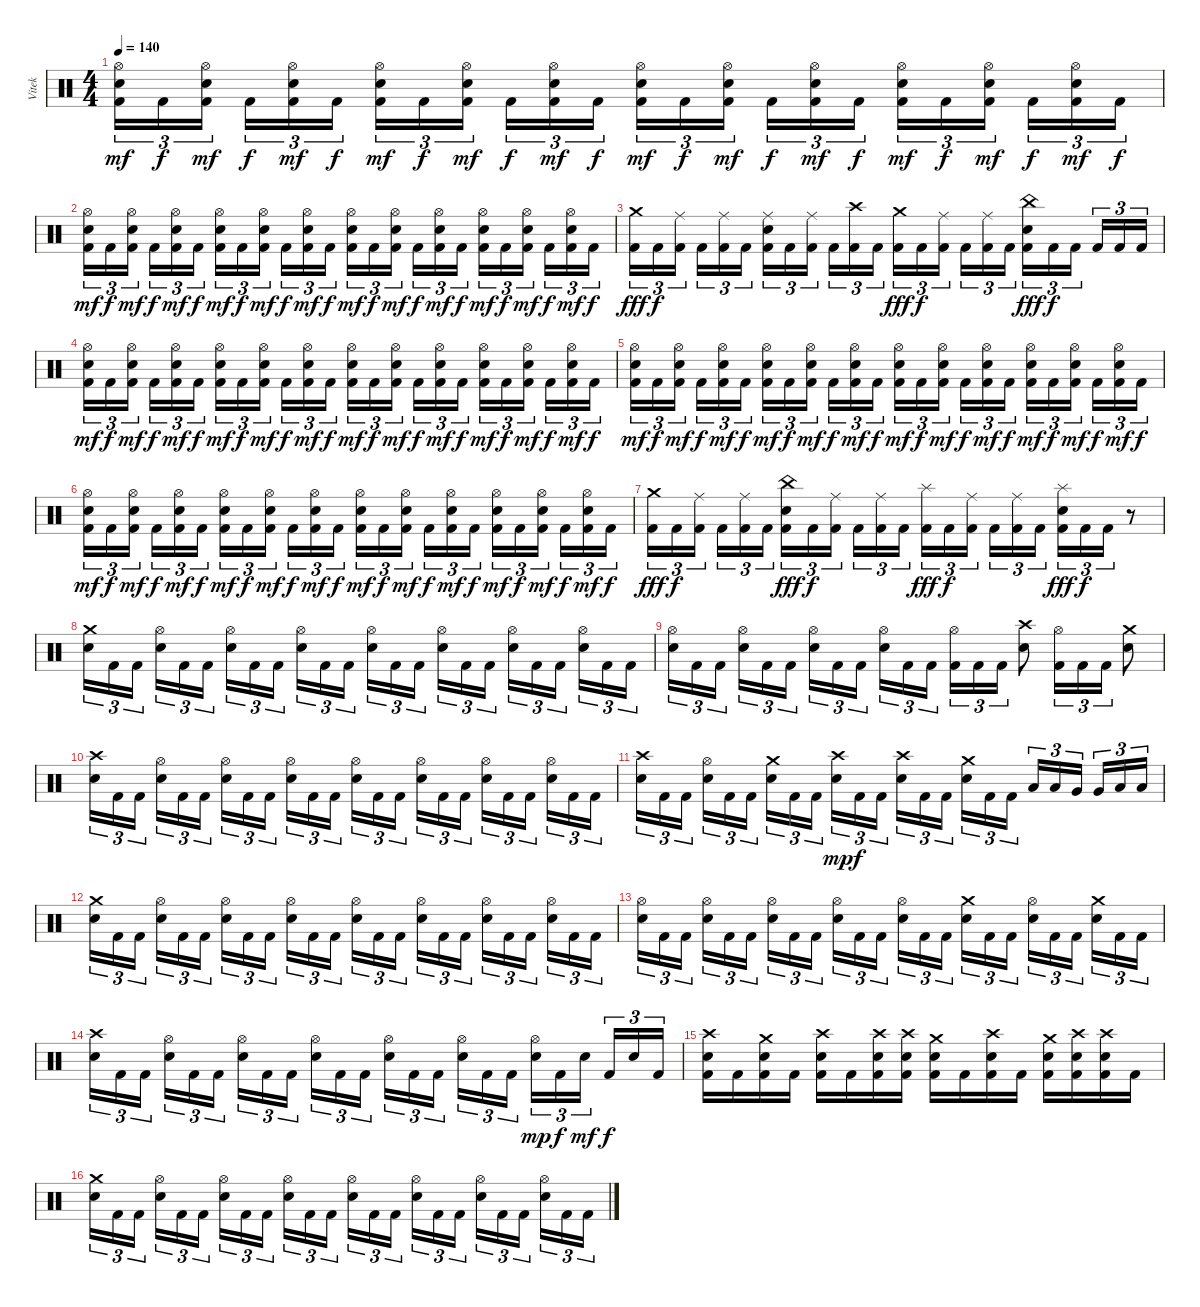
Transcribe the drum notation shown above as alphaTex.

\track ("Vitek" "Vitek") {instrument percussion}
\staff {score}
\articulation defaults
\ts (4 4)
\tempo 140
\clef neutral
\ks c
("Hi-Hat (open)" "Electric Snare (hit)" "Kick (hit) 2").16{tu (3 2) dy mf} "Kick (hit) 2".16{tu (3 2) dy f} ("Hi-Hat (open)" "Electric Snare (hit)" "Kick (hit) 2").16{tu (3 2) dy mf} "Kick (hit) 2".16{tu (3 2) dy f} ("Hi-Hat (open)" "Electric Snare (hit)" "Kick (hit) 2").16{tu (3 2) dy mf} "Kick (hit) 2".16{tu (3 2) dy f} ("Hi-Hat (open)" "Electric Snare (hit)" "Kick (hit) 2").16{tu (3 2) dy mf} "Kick (hit) 2".16{tu (3 2) dy f} ("Hi-Hat (open)" "Electric Snare (hit)" "Kick (hit) 2").16{tu (3 2) dy mf} "Kick (hit) 2".16{tu (3 2) dy f} ("Hi-Hat (open)" "Electric Snare (hit)" "Kick (hit) 2").16{tu (3 2) dy mf} "Kick (hit) 2".16{tu (3 2) dy f} ("Hi-Hat (open)" "Electric Snare (hit)" "Kick (hit) 2").16{tu (3 2) dy mf} "Kick (hit) 2".16{tu (3 2) dy f} ("Hi-Hat (open)" "Electric Snare (hit)" "Kick (hit) 2").16{tu (3 2) dy mf} "Kick (hit) 2".16{tu (3 2) dy f} ("Hi-Hat (open)" "Electric Snare (hit)" "Kick (hit) 2").16{tu (3 2) dy mf} "Kick (hit) 2".16{tu (3 2) dy f} ("Hi-Hat (open)" "Electric Snare (hit)" "Kick (hit) 2").16{tu (3 2) dy mf} "Kick (hit) 2".16{tu (3 2) dy f} ("Hi-Hat (open)" "Electric Snare (hit)" "Kick (hit) 2").16{tu (3 2) dy mf} "Kick (hit) 2".16{tu (3 2) dy f} ("Hi-Hat (open)" "Electric Snare (hit)" "Kick (hit) 2").16{tu (3 2) dy mf} "Kick (hit) 2".16{tu (3 2) dy f} |
("Hi-Hat (open)" "Electric Snare (hit)" "Kick (hit) 2").16{tu (3 2) dy mf} "Kick (hit) 2".16{tu (3 2) dy f} ("Hi-Hat (open)" "Electric Snare (hit)" "Kick (hit) 2").16{tu (3 2) dy mf} "Kick (hit) 2".16{tu (3 2) dy f} ("Hi-Hat (open)" "Electric Snare (hit)" "Kick (hit) 2").16{tu (3 2) dy mf} "Kick (hit) 2".16{tu (3 2) dy f} ("Hi-Hat (open)" "Electric Snare (hit)" "Kick (hit) 2").16{tu (3 2) dy mf} "Kick (hit) 2".16{tu (3 2) dy f} ("Hi-Hat (open)" "Electric Snare (hit)" "Kick (hit) 2").16{tu (3 2) dy mf} "Kick (hit) 2".16{tu (3 2) dy f} ("Hi-Hat (open)" "Electric Snare (hit)" "Kick (hit) 2").16{tu (3 2) dy mf} "Kick (hit) 2".16{tu (3 2) dy f} ("Hi-Hat (open)" "Electric Snare (hit)" "Kick (hit) 2").16{tu (3 2) dy mf} "Kick (hit) 2".16{tu (3 2) dy f} ("Hi-Hat (open)" "Electric Snare (hit)" "Kick (hit) 2").16{tu (3 2) dy mf} "Kick (hit) 2".16{tu (3 2) dy f} ("Hi-Hat (open)" "Electric Snare (hit)" "Kick (hit) 2").16{tu (3 2) dy mf} "Kick (hit) 2".16{tu (3 2) dy f} ("Hi-Hat (open)" "Electric Snare (hit)" "Kick (hit) 2").16{tu (3 2) dy mf} "Kick (hit) 2".16{tu (3 2) dy f} ("Hi-Hat (open)" "Electric Snare (hit)" "Kick (hit) 2").16{tu (3 2) dy mf} "Kick (hit) 2".16{tu (3 2) dy f} ("Hi-Hat (open)" "Electric Snare (hit)" "Kick (hit) 2").16{tu (3 2) dy mf} "Kick (hit) 2".16{tu (3 2) dy f} |
("Crash medium (hit)" "Kick (hit) 2").16{tu (3 2) dy fff} "Kick (hit) 2".16{tu (3 2) dy f} ("Ride (middle)" "Kick (hit) 2").16{tu (3 2)} "Kick (hit) 2".16{tu (3 2)} ("Ride (middle)" "Kick (hit) 2").16{tu (3 2)} "Kick (hit) 2".16{tu (3 2)} ("Ride (middle)" "Electric Snare (hit)" "Kick (hit) 2").16{tu (3 2)} "Kick (hit) 2".16{tu (3 2)} ("Ride (middle)" "Kick (hit) 2").16{tu (3 2)} "Kick (hit) 2".16{tu (3 2)} ("Crash high (hit)" "Kick (hit) 2").16{tu (3 2)} "Kick (hit) 2".16{tu (3 2)} ("Crash medium (hit)" "Kick (hit) 2").16{tu (3 2) dy fff} "Kick (hit) 2".16{tu (3 2) dy f} ("Ride (middle)" "Kick (hit) 2").16{tu (3 2)} "Kick (hit) 2".16{tu (3 2)} ("Ride (middle)" "Kick (hit) 2").16{tu (3 2)} "Kick (hit) 2".16{tu (3 2)} ("China (hit)" "Electric Snare (hit)" "Kick (hit) 2").16{tu (3 2) dy fff} "Kick (hit) 2".16{tu (3 2) dy f} "Kick (hit) 2".16{tu (3 2)} "Kick (hit) 2".16{tu (3 2)} "Kick (hit) 2".16{tu (3 2)} "Kick (hit) 2".16{tu (3 2)} |
("Hi-Hat (open)" "Electric Snare (hit)" "Kick (hit) 2").16{tu (3 2) dy mf} "Kick (hit) 2".16{tu (3 2) dy f} ("Hi-Hat (open)" "Electric Snare (hit)" "Kick (hit) 2").16{tu (3 2) dy mf} "Kick (hit) 2".16{tu (3 2) dy f} ("Hi-Hat (open)" "Electric Snare (hit)" "Kick (hit) 2").16{tu (3 2) dy mf} "Kick (hit) 2".16{tu (3 2) dy f} ("Hi-Hat (open)" "Electric Snare (hit)" "Kick (hit) 2").16{tu (3 2) dy mf} "Kick (hit) 2".16{tu (3 2) dy f} ("Hi-Hat (open)" "Electric Snare (hit)" "Kick (hit) 2").16{tu (3 2) dy mf} "Kick (hit) 2".16{tu (3 2) dy f} ("Hi-Hat (open)" "Electric Snare (hit)" "Kick (hit) 2").16{tu (3 2) dy mf} "Kick (hit) 2".16{tu (3 2) dy f} ("Hi-Hat (open)" "Electric Snare (hit)" "Kick (hit) 2").16{tu (3 2) dy mf} "Kick (hit) 2".16{tu (3 2) dy f} ("Hi-Hat (open)" "Electric Snare (hit)" "Kick (hit) 2").16{tu (3 2) dy mf} "Kick (hit) 2".16{tu (3 2) dy f} ("Hi-Hat (open)" "Electric Snare (hit)" "Kick (hit) 2").16{tu (3 2) dy mf} "Kick (hit) 2".16{tu (3 2) dy f} ("Hi-Hat (open)" "Electric Snare (hit)" "Kick (hit) 2").16{tu (3 2) dy mf} "Kick (hit) 2".16{tu (3 2) dy f} ("Hi-Hat (open)" "Electric Snare (hit)" "Kick (hit) 2").16{tu (3 2) dy mf} "Kick (hit) 2".16{tu (3 2) dy f} ("Hi-Hat (open)" "Electric Snare (hit)" "Kick (hit) 2").16{tu (3 2) dy mf} "Kick (hit) 2".16{tu (3 2) dy f} |
("Hi-Hat (open)" "Electric Snare (hit)" "Kick (hit) 2").16{tu (3 2) dy mf} "Kick (hit) 2".16{tu (3 2) dy f} ("Hi-Hat (open)" "Electric Snare (hit)" "Kick (hit) 2").16{tu (3 2) dy mf} "Kick (hit) 2".16{tu (3 2) dy f} ("Hi-Hat (open)" "Electric Snare (hit)" "Kick (hit) 2").16{tu (3 2) dy mf} "Kick (hit) 2".16{tu (3 2) dy f} ("Hi-Hat (open)" "Electric Snare (hit)" "Kick (hit) 2").16{tu (3 2) dy mf} "Kick (hit) 2".16{tu (3 2) dy f} ("Hi-Hat (open)" "Electric Snare (hit)" "Kick (hit) 2").16{tu (3 2) dy mf} "Kick (hit) 2".16{tu (3 2) dy f} ("Hi-Hat (open)" "Electric Snare (hit)" "Kick (hit) 2").16{tu (3 2) dy mf} "Kick (hit) 2".16{tu (3 2) dy f} ("Hi-Hat (open)" "Electric Snare (hit)" "Kick (hit) 2").16{tu (3 2) dy mf} "Kick (hit) 2".16{tu (3 2) dy f} ("Hi-Hat (open)" "Electric Snare (hit)" "Kick (hit) 2").16{tu (3 2) dy mf} "Kick (hit) 2".16{tu (3 2) dy f} ("Hi-Hat (open)" "Electric Snare (hit)" "Kick (hit) 2").16{tu (3 2) dy mf} "Kick (hit) 2".16{tu (3 2) dy f} ("Hi-Hat (open)" "Electric Snare (hit)" "Kick (hit) 2").16{tu (3 2) dy mf} "Kick (hit) 2".16{tu (3 2) dy f} ("Hi-Hat (open)" "Electric Snare (hit)" "Kick (hit) 2").16{tu (3 2) dy mf} "Kick (hit) 2".16{tu (3 2) dy f} ("Hi-Hat (open)" "Electric Snare (hit)" "Kick (hit) 2").16{tu (3 2) dy mf} "Kick (hit) 2".16{tu (3 2) dy f} |
("Hi-Hat (open)" "Electric Snare (hit)" "Kick (hit) 2").16{tu (3 2) dy mf} "Kick (hit) 2".16{tu (3 2) dy f} ("Hi-Hat (open)" "Electric Snare (hit)" "Kick (hit) 2").16{tu (3 2) dy mf} "Kick (hit) 2".16{tu (3 2) dy f} ("Hi-Hat (open)" "Electric Snare (hit)" "Kick (hit) 2").16{tu (3 2) dy mf} "Kick (hit) 2".16{tu (3 2) dy f} ("Hi-Hat (open)" "Electric Snare (hit)" "Kick (hit) 2").16{tu (3 2) dy mf} "Kick (hit) 2".16{tu (3 2) dy f} ("Hi-Hat (open)" "Electric Snare (hit)" "Kick (hit) 2").16{tu (3 2) dy mf} "Kick (hit) 2".16{tu (3 2) dy f} ("Hi-Hat (open)" "Electric Snare (hit)" "Kick (hit) 2").16{tu (3 2) dy mf} "Kick (hit) 2".16{tu (3 2) dy f} ("Hi-Hat (open)" "Electric Snare (hit)" "Kick (hit) 2").16{tu (3 2) dy mf} "Kick (hit) 2".16{tu (3 2) dy f} ("Hi-Hat (open)" "Electric Snare (hit)" "Kick (hit) 2").16{tu (3 2) dy mf} "Kick (hit) 2".16{tu (3 2) dy f} ("Hi-Hat (open)" "Electric Snare (hit)" "Kick (hit) 2").16{tu (3 2) dy mf} "Kick (hit) 2".16{tu (3 2) dy f} ("Hi-Hat (open)" "Electric Snare (hit)" "Kick (hit) 2").16{tu (3 2) dy mf} "Kick (hit) 2".16{tu (3 2) dy f} ("Hi-Hat (open)" "Electric Snare (hit)" "Kick (hit) 2").16{tu (3 2) dy mf} "Kick (hit) 2".16{tu (3 2) dy f} ("Hi-Hat (open)" "Electric Snare (hit)" "Kick (hit) 2").16{tu (3 2) dy mf} "Kick (hit) 2".16{tu (3 2) dy f} |
("Crash medium (hit)" "Kick (hit) 2").16{tu (3 2) dy fff} "Kick (hit) 2".16{tu (3 2) dy f} ("Ride (middle)" "Kick (hit) 2").16{tu (3 2)} "Kick (hit) 2".16{tu (3 2)} ("Ride (middle)" "Kick (hit) 2").16{tu (3 2)} "Kick (hit) 2".16{tu (3 2)} ("China (hit)" "Electric Snare (hit)" "Kick (hit) 2").16{tu (3 2) dy fff} "Kick (hit) 2".16{tu (3 2) dy f} ("Ride (middle)" "Kick (hit) 2").16{tu (3 2)} "Kick (hit) 2".16{tu (3 2)} ("Ride (middle)" "Kick (hit) 2").16{tu (3 2)} "Kick (hit) 2".16{tu (3 2)} ("Splash (hit)" "Kick (hit) 2").16{tu (3 2) dy fff} "Kick (hit) 2".16{tu (3 2) dy f} ("Ride (middle)" "Kick (hit) 2").16{tu (3 2)} "Kick (hit) 2".16{tu (3 2)} ("Ride (middle)" "Kick (hit) 2").16{tu (3 2)} "Kick (hit) 2".16{tu (3 2)} ("Splash (hit)" "Electric Snare (hit)" "Kick (hit) 2").16{tu (3 2) dy fff} "Kick (hit) 2".16{tu (3 2) dy f} "Kick (hit) 2".16{tu (3 2)} r.8{volume 0} |
("Crash medium (hit)" "Electric Snare (hit)").16{tu (3 2) volume 16} "Kick (hit) 2".16{tu (3 2)} "Kick (hit) 2".16{tu (3 2)} ("Hi-Hat (open)" "Electric Snare (hit)").16{tu (3 2)} "Kick (hit) 2".16{tu (3 2)} "Kick (hit) 2".16{tu (3 2)} ("Hi-Hat (open)" "Electric Snare (hit)").16{tu (3 2)} "Kick (hit) 2".16{tu (3 2)} "Kick (hit) 2".16{tu (3 2)} ("Hi-Hat (open)" "Electric Snare (hit)").16{tu (3 2)} "Kick (hit) 2".16{tu (3 2)} "Kick (hit) 2".16{tu (3 2)} ("Hi-Hat (open)" "Electric Snare (hit)").16{tu (3 2)} "Kick (hit) 2".16{tu (3 2)} "Kick (hit) 2".16{tu (3 2)} ("Hi-Hat (open)" "Electric Snare (hit)").16{tu (3 2)} "Kick (hit) 2".16{tu (3 2)} "Kick (hit) 2".16{tu (3 2)} ("Hi-Hat (open)" "Electric Snare (hit)").16{tu (3 2)} "Kick (hit) 2".16{tu (3 2)} "Kick (hit) 2".16{tu (3 2)} ("Hi-Hat (open)" "Electric Snare (hit)").16{tu (3 2)} "Kick (hit) 2".16{tu (3 2)} "Kick (hit) 2".16{tu (3 2)} |
("Hi-Hat (open)" "Electric Snare (hit)").16{tu (3 2) volume 16} "Kick (hit) 2".16{tu (3 2)} "Kick (hit) 2".16{tu (3 2)} ("Hi-Hat (open)" "Electric Snare (hit)").16{tu (3 2)} "Kick (hit) 2".16{tu (3 2)} "Kick (hit) 2".16{tu (3 2)} ("Hi-Hat (open)" "Electric Snare (hit)").16{tu (3 2)} "Kick (hit) 2".16{tu (3 2)} "Kick (hit) 2".16{tu (3 2)} ("Hi-Hat (open)" "Electric Snare (hit)").16{tu (3 2)} "Kick (hit) 2".16{tu (3 2)} "Kick (hit) 2".16{tu (3 2)} ("Hi-Hat (open)" "Kick (hit) 2").16{tu (3 2)} "Kick (hit) 2".16{tu (3 2)} "Kick (hit) 2".16{tu (3 2)} ("Crash high (hit)" "Electric Snare (hit)").8 ("Hi-Hat (open)" "Kick (hit) 2").16{tu (3 2)} "Kick (hit) 2".16{tu (3 2)} "Kick (hit) 2".16{tu (3 2)} ("Crash medium (hit)" "Electric Snare (hit)").8 |
("Crash high (hit)" "Electric Snare (hit)").16{tu (3 2) volume 16} "Kick (hit) 2".16{tu (3 2)} "Kick (hit) 2".16{tu (3 2)} ("Hi-Hat (open)" "Electric Snare (hit)").16{tu (3 2)} "Kick (hit) 2".16{tu (3 2)} "Kick (hit) 2".16{tu (3 2)} ("Hi-Hat (open)" "Electric Snare (hit)").16{tu (3 2)} "Kick (hit) 2".16{tu (3 2)} "Kick (hit) 2".16{tu (3 2)} ("Hi-Hat (open)" "Electric Snare (hit)").16{tu (3 2)} "Kick (hit) 2".16{tu (3 2)} "Kick (hit) 2".16{tu (3 2)} ("Hi-Hat (open)" "Electric Snare (hit)").16{tu (3 2)} "Kick (hit) 2".16{tu (3 2)} "Kick (hit) 2".16{tu (3 2)} ("Hi-Hat (open)" "Electric Snare (hit)").16{tu (3 2)} "Kick (hit) 2".16{tu (3 2)} "Kick (hit) 2".16{tu (3 2)} ("Hi-Hat (open)" "Electric Snare (hit)").16{tu (3 2)} "Kick (hit) 2".16{tu (3 2)} "Kick (hit) 2".16{tu (3 2)} ("Hi-Hat (open)" "Electric Snare (hit)").16{tu (3 2)} "Kick (hit) 2".16{tu (3 2)} "Kick (hit) 2".16{tu (3 2)} |
("Crash high (hit)" "Electric Snare (hit)").16{tu (3 2) volume 16} "Kick (hit) 2".16{tu (3 2)} "Kick (hit) 2".16{tu (3 2)} ("Hi-Hat (open)" "Electric Snare (hit)").16{tu (3 2)} "Kick (hit) 2".16{tu (3 2)} "Kick (hit) 2".16{tu (3 2)} ("Crash medium (hit)" "Electric Snare (hit)").16{tu (3 2)} "Kick (hit) 2".16{tu (3 2)} "Kick (hit) 2".16{tu (3 2)} ("Crash high (hit)" "Electric Snare (hit)").16{tu (3 2) dy mp} "Kick (hit) 2".16{tu (3 2) dy f} "Kick (hit) 2".16{tu (3 2)} ("Crash high (hit)" "Electric Snare (hit)").16{tu (3 2)} "Kick (hit) 2".16{tu (3 2)} "Kick (hit) 2".16{tu (3 2)} ("Crash medium (hit)" "Electric Snare (hit)").16{tu (3 2)} "Kick (hit) 2".16{tu (3 2)} "Kick (hit) 2".16{tu (3 2)} "Low Tom (hit)".16{tu (3 2)} "Low Tom (hit)".16{tu (3 2)} "Very Low Tom (hit)".16{tu (3 2)} "Very Low Tom (hit)".16{tu (3 2)} "Low Floor Tom (hit)".16{tu (3 2)} "Low Floor Tom (hit)".16{tu (3 2)} |
("Crash medium (hit)" "Electric Snare (hit)").16{tu (3 2) volume 16} "Kick (hit) 2".16{tu (3 2)} "Kick (hit) 2".16{tu (3 2)} ("Hi-Hat (open)" "Electric Snare (hit)").16{tu (3 2)} "Kick (hit) 2".16{tu (3 2)} "Kick (hit) 2".16{tu (3 2)} ("Hi-Hat (open)" "Electric Snare (hit)").16{tu (3 2)} "Kick (hit) 2".16{tu (3 2)} "Kick (hit) 2".16{tu (3 2)} ("Hi-Hat (open)" "Electric Snare (hit)").16{tu (3 2)} "Kick (hit) 2".16{tu (3 2)} "Kick (hit) 2".16{tu (3 2)} ("Hi-Hat (open)" "Electric Snare (hit)").16{tu (3 2)} "Kick (hit) 2".16{tu (3 2)} "Kick (hit) 2".16{tu (3 2)} ("Hi-Hat (open)" "Electric Snare (hit)").16{tu (3 2)} "Kick (hit) 2".16{tu (3 2)} "Kick (hit) 2".16{tu (3 2)} ("Hi-Hat (open)" "Electric Snare (hit)").16{tu (3 2)} "Kick (hit) 2".16{tu (3 2)} "Kick (hit) 2".16{tu (3 2)} ("Hi-Hat (open)" "Electric Snare (hit)").16{tu (3 2)} "Kick (hit) 2".16{tu (3 2)} "Kick (hit) 2".16{tu (3 2)} |
("Hi-Hat (open)" "Electric Snare (hit)").16{tu (3 2) volume 16} "Kick (hit) 2".16{tu (3 2)} "Kick (hit) 2".16{tu (3 2)} ("Hi-Hat (open)" "Electric Snare (hit)").16{tu (3 2)} "Kick (hit) 2".16{tu (3 2)} "Kick (hit) 2".16{tu (3 2)} ("Hi-Hat (open)" "Electric Snare (hit)").16{tu (3 2)} "Kick (hit) 2".16{tu (3 2)} "Kick (hit) 2".16{tu (3 2)} ("Hi-Hat (open)" "Electric Snare (hit)").16{tu (3 2)} "Kick (hit) 2".16{tu (3 2)} "Kick (hit) 2".16{tu (3 2)} ("Hi-Hat (open)" "Electric Snare (hit)").16{tu (3 2)} "Kick (hit) 2".16{tu (3 2)} "Kick (hit) 2".16{tu (3 2)} ("Crash medium (hit)" "Electric Snare (hit)").16{tu (3 2)} "Kick (hit) 2".16{tu (3 2)} "Kick (hit) 2".16{tu (3 2)} ("Hi-Hat (open)" "Electric Snare (hit)").16{tu (3 2)} "Kick (hit) 2".16{tu (3 2)} "Kick (hit) 2".16{tu (3 2)} ("Crash medium (hit)" "Electric Snare (hit)").16{tu (3 2)} "Kick (hit) 2".16{tu (3 2)} "Kick (hit) 2".16{tu (3 2)} |
("Crash high (hit)" "Electric Snare (hit)").16{tu (3 2) volume 16} "Kick (hit) 2".16{tu (3 2)} "Kick (hit) 2".16{tu (3 2)} ("Hi-Hat (open)" "Electric Snare (hit)").16{tu (3 2)} "Kick (hit) 2".16{tu (3 2)} "Kick (hit) 2".16{tu (3 2)} ("Hi-Hat (open)" "Electric Snare (hit)").16{tu (3 2)} "Kick (hit) 2".16{tu (3 2)} "Kick (hit) 2".16{tu (3 2)} ("Hi-Hat (open)" "Electric Snare (hit)").16{tu (3 2)} "Kick (hit) 2".16{tu (3 2)} "Kick (hit) 2".16{tu (3 2)} ("Hi-Hat (open)" "Electric Snare (hit)").16{tu (3 2)} "Kick (hit) 2".16{tu (3 2)} "Kick (hit) 2".16{tu (3 2)} ("Hi-Hat (open)" "Electric Snare (hit)").16{tu (3 2)} "Kick (hit) 2".16{tu (3 2)} "Kick (hit) 2".16{tu (3 2)} ("Hi-Hat (open)" "Electric Snare (hit)").16{tu (3 2) dy mp} "Kick (hit) 2".16{tu (3 2) dy f} "Electric Snare (hit)".16{tu (3 2) dy mf} "Kick (hit) 2".16{tu (3 2) dy f} "Electric Snare (hit)".16{tu (3 2)} "Kick (hit) 2".16{tu (3 2)} |
("Crash high (hit)" "Electric Snare (hit)" "Kick (hit) 2").16 "Kick (hit) 2".16 ("Crash medium (hit)" "Electric Snare (hit)" "Kick (hit) 2").16 "Kick (hit) 2".16 ("Crash high (hit)" "Electric Snare (hit)" "Kick (hit) 2").16 "Kick (hit) 2".16 ("Crash high (hit)" "Electric Snare (hit)" "Kick (hit) 2").16 ("Crash high (hit)" "Electric Snare (hit)" "Kick (hit) 2").16 ("Crash medium (hit)" "Electric Snare (hit)" "Kick (hit) 2").16 "Kick (hit) 2".16 ("Crash high (hit)" "Electric Snare (hit)" "Kick (hit) 2").16 "Kick (hit) 2".16 ("Crash medium (hit)" "Electric Snare (hit)" "Kick (hit) 2").16 ("Crash high (hit)" "Electric Snare (hit)" "Kick (hit) 2").16 ("Crash high (hit)" "Electric Snare (hit)" "Kick (hit) 2").16 "Kick (hit) 2".16 |
("Crash medium (hit)" "Electric Snare (hit)").16{tu (3 2) volume 16} "Kick (hit) 2".16{tu (3 2)} "Kick (hit) 2".16{tu (3 2)} ("Hi-Hat (open)" "Electric Snare (hit)").16{tu (3 2)} "Kick (hit) 2".16{tu (3 2)} "Kick (hit) 2".16{tu (3 2)} ("Hi-Hat (open)" "Electric Snare (hit)").16{tu (3 2)} "Kick (hit) 2".16{tu (3 2)} "Kick (hit) 2".16{tu (3 2)} ("Hi-Hat (open)" "Electric Snare (hit)").16{tu (3 2)} "Kick (hit) 2".16{tu (3 2)} "Kick (hit) 2".16{tu (3 2)} ("Hi-Hat (open)" "Electric Snare (hit)").16{tu (3 2)} "Kick (hit) 2".16{tu (3 2)} "Kick (hit) 2".16{tu (3 2)} ("Hi-Hat (open)" "Electric Snare (hit)").16{tu (3 2)} "Kick (hit) 2".16{tu (3 2)} "Kick (hit) 2".16{tu (3 2)} ("Hi-Hat (open)" "Electric Snare (hit)").16{tu (3 2)} "Kick (hit) 2".16{tu (3 2)} "Kick (hit) 2".16{tu (3 2)} ("Hi-Hat (open)" "Electric Snare (hit)").16{tu (3 2)} "Kick (hit) 2".16{tu (3 2)} "Kick (hit) 2".16{tu (3 2)}
